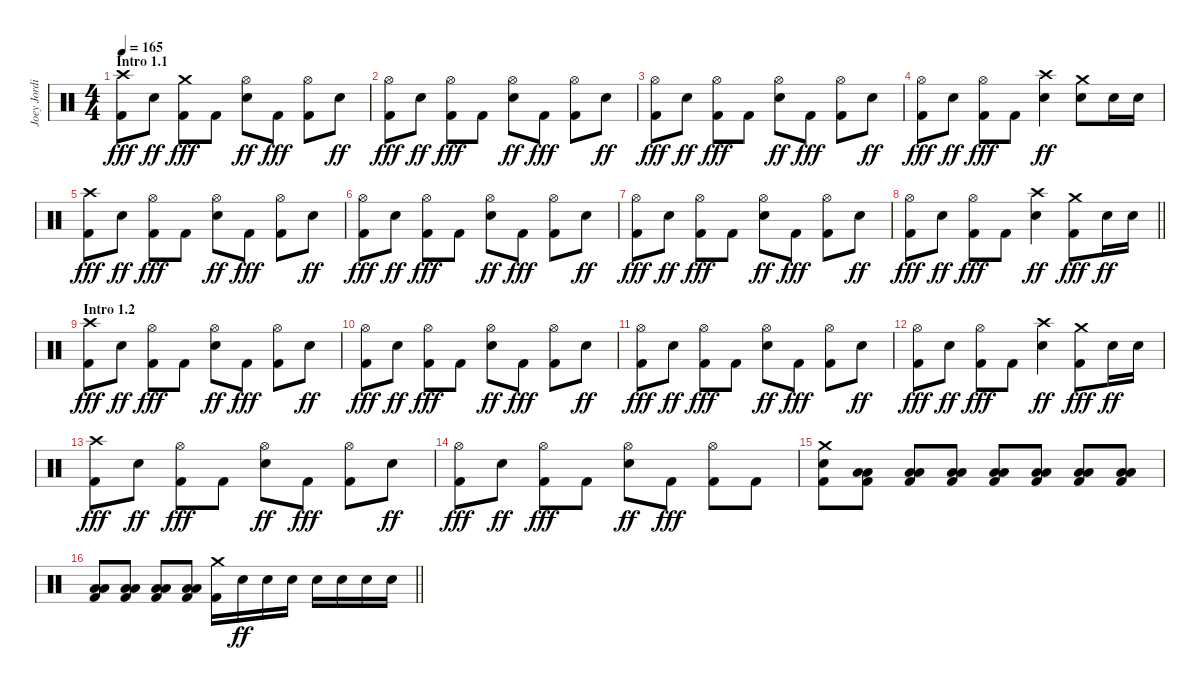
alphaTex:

\track ("Joey Jordison" "Joey Jordi") {instrument percussion}
\staff {score}
\articulation defaults
\ts (4 4)
\section ("" "Intro 1.1")
\tempo 165
\clef neutral
\ks c
("Crash high (hit)" "Kick (hit) 2").8{dy fff} "Electric Snare (hit)".8{dy ff} ("Crash medium (hit)" "Kick (hit) 2").8{dy fff} "Kick (hit) 2".8 ("Hi-Hat (open)" "Electric Snare (hit)").8{dy ff} "Kick (hit) 2".8{dy fff} ("Hi-Hat (open)" "Kick (hit) 2").8 "Electric Snare (hit)".8{dy ff} |
("Hi-Hat (open)" "Kick (hit) 2").8{dy fff} "Electric Snare (hit)".8{dy ff} ("Hi-Hat (open)" "Kick (hit) 2").8{dy fff} "Kick (hit) 2".8 ("Hi-Hat (open)" "Electric Snare (hit)").8{dy ff} "Kick (hit) 2".8{dy fff} ("Hi-Hat (open)" "Kick (hit) 2").8 "Electric Snare (hit)".8{dy ff} |
("Hi-Hat (open)" "Kick (hit) 2").8{dy fff} "Electric Snare (hit)".8{dy ff} ("Hi-Hat (open)" "Kick (hit) 2").8{dy fff} "Kick (hit) 2".8 ("Hi-Hat (open)" "Electric Snare (hit)").8{dy ff} "Kick (hit) 2".8{dy fff} ("Hi-Hat (open)" "Kick (hit) 2").8 "Electric Snare (hit)".8{dy ff} |
("Hi-Hat (open)" "Kick (hit) 2").8{dy fff} "Electric Snare (hit)".8{dy ff} ("Hi-Hat (open)" "Kick (hit) 2").8{dy fff} "Kick (hit) 2".8 ("Crash high (hit)" "Electric Snare (hit)").4{dy ff} ("Crash medium (hit)" "Electric Snare (hit)").8 "Electric Snare (hit)".16 "Electric Snare (hit)".16 |
("Crash high (hit)" "Kick (hit) 2").8{dy fff} "Electric Snare (hit)".8{dy ff} ("Hi-Hat (open)" "Kick (hit) 2").8{dy fff} "Kick (hit) 2".8 ("Hi-Hat (open)" "Electric Snare (hit)").8{dy ff} "Kick (hit) 2".8{dy fff} ("Hi-Hat (open)" "Kick (hit) 2").8 "Electric Snare (hit)".8{dy ff} |
("Hi-Hat (open)" "Kick (hit) 2").8{dy fff} "Electric Snare (hit)".8{dy ff} ("Hi-Hat (open)" "Kick (hit) 2").8{dy fff} "Kick (hit) 2".8 ("Hi-Hat (open)" "Electric Snare (hit)").8{dy ff} "Kick (hit) 2".8{dy fff} ("Hi-Hat (open)" "Kick (hit) 2").8 "Electric Snare (hit)".8{dy ff} |
("Hi-Hat (open)" "Kick (hit) 2").8{dy fff} "Electric Snare (hit)".8{dy ff} ("Hi-Hat (open)" "Kick (hit) 2").8{dy fff} "Kick (hit) 2".8 ("Hi-Hat (open)" "Electric Snare (hit)").8{dy ff} "Kick (hit) 2".8{dy fff} ("Hi-Hat (open)" "Kick (hit) 2").8 "Electric Snare (hit)".8{dy ff} |
\barLineRight lightlight
("Hi-Hat (open)" "Kick (hit) 2").8{dy fff} "Electric Snare (hit)".8{dy ff} ("Hi-Hat (open)" "Kick (hit) 2").8{dy fff} "Kick (hit) 2".8 ("Crash high (hit)" "Electric Snare (hit)").4{dy ff} ("Crash medium (hit)" "Kick (hit) 2").8{dy fff} "Electric Snare (hit)".16{dy ff} "Electric Snare (hit)".16 |
\section ("" "Intro 1.2")
("Crash high (hit)" "Kick (hit) 2").8{dy fff} "Electric Snare (hit)".8{dy ff} ("Hi-Hat (open)" "Kick (hit) 2").8{dy fff} "Kick (hit) 2".8 ("Hi-Hat (open)" "Electric Snare (hit)").8{dy ff} "Kick (hit) 2".8{dy fff} ("Hi-Hat (open)" "Kick (hit) 2").8 "Electric Snare (hit)".8{dy ff} |
("Hi-Hat (open)" "Kick (hit) 2").8{dy fff} "Electric Snare (hit)".8{dy ff} ("Hi-Hat (open)" "Kick (hit) 2").8{dy fff} "Kick (hit) 2".8 ("Hi-Hat (open)" "Electric Snare (hit)").8{dy ff} "Kick (hit) 2".8{dy fff} ("Hi-Hat (open)" "Kick (hit) 2").8 "Electric Snare (hit)".8{dy ff} |
("Hi-Hat (open)" "Kick (hit) 2").8{dy fff} "Electric Snare (hit)".8{dy ff} ("Hi-Hat (open)" "Kick (hit) 2").8{dy fff} "Kick (hit) 2".8 ("Hi-Hat (open)" "Electric Snare (hit)").8{dy ff} "Kick (hit) 2".8{dy fff} ("Hi-Hat (open)" "Kick (hit) 2").8 "Electric Snare (hit)".8{dy ff} |
("Hi-Hat (open)" "Kick (hit) 2").8{dy fff} "Electric Snare (hit)".8{dy ff} ("Hi-Hat (open)" "Kick (hit) 2").8{dy fff} "Kick (hit) 2".8 ("Crash high (hit)" "Electric Snare (hit)").4{dy ff} ("Crash medium (hit)" "Kick (hit) 2").8{dy fff} "Electric Snare (hit)".16{dy ff} "Electric Snare (hit)".16 |
("Crash high (hit)" "Kick (hit) 2").8{dy fff} "Electric Snare (hit)".8{dy ff} ("Hi-Hat (open)" "Kick (hit) 2").8{dy fff} "Kick (hit) 2".8 ("Hi-Hat (open)" "Electric Snare (hit)").8{dy ff} "Kick (hit) 2".8{dy fff} ("Hi-Hat (open)" "Kick (hit) 2").8 "Electric Snare (hit)".8{dy ff} |
("Hi-Hat (open)" "Kick (hit) 2").8{dy fff} "Electric Snare (hit)".8{dy ff} ("Hi-Hat (open)" "Kick (hit) 2").8{dy fff} "Kick (hit) 2".8 ("Hi-Hat (open)" "Electric Snare (hit)").8{dy ff} "Kick (hit) 2".8{dy fff} ("Hi-Hat (open)" "Kick (hit) 2").8 "Kick (hit) 2".8 |
("Crash medium (hit)" "Electric Snare (hit)" "Kick (hit) 2").8 ("Low Tom (hit)" "Low Floor Tom (hit)" "Kick (hit) 2").8 ("Low Tom (hit)" "Low Floor Tom (hit)" "Kick (hit) 2").8 ("Low Tom (hit)" "Low Floor Tom (hit)" "Kick (hit) 2").8 ("Low Tom (hit)" "Low Floor Tom (hit)" "Kick (hit) 2").8 ("Low Tom (hit)" "Low Floor Tom (hit)" "Kick (hit) 2").8 ("Low Tom (hit)" "Low Floor Tom (hit)" "Kick (hit) 2").8 ("Low Tom (hit)" "Low Floor Tom (hit)" "Kick (hit) 2").8 |
\barLineRight lightlight
("Low Tom (hit)" "Low Floor Tom (hit)" "Kick (hit) 2").8 ("Low Tom (hit)" "Low Floor Tom (hit)" "Kick (hit) 2").8 ("Low Tom (hit)" "Low Floor Tom (hit)" "Kick (hit) 2").8 ("Low Tom (hit)" "Low Floor Tom (hit)" "Kick (hit) 2").8 ("Crash medium (hit)" "Kick (hit) 2").16 "Electric Snare (hit)".16{dy ff} "Electric Snare (hit)".16 "Electric Snare (hit)".16 "Electric Snare (hit)".16 "Electric Snare (hit)".16 "Electric Snare (hit)".16 "Electric Snare (hit)".16
